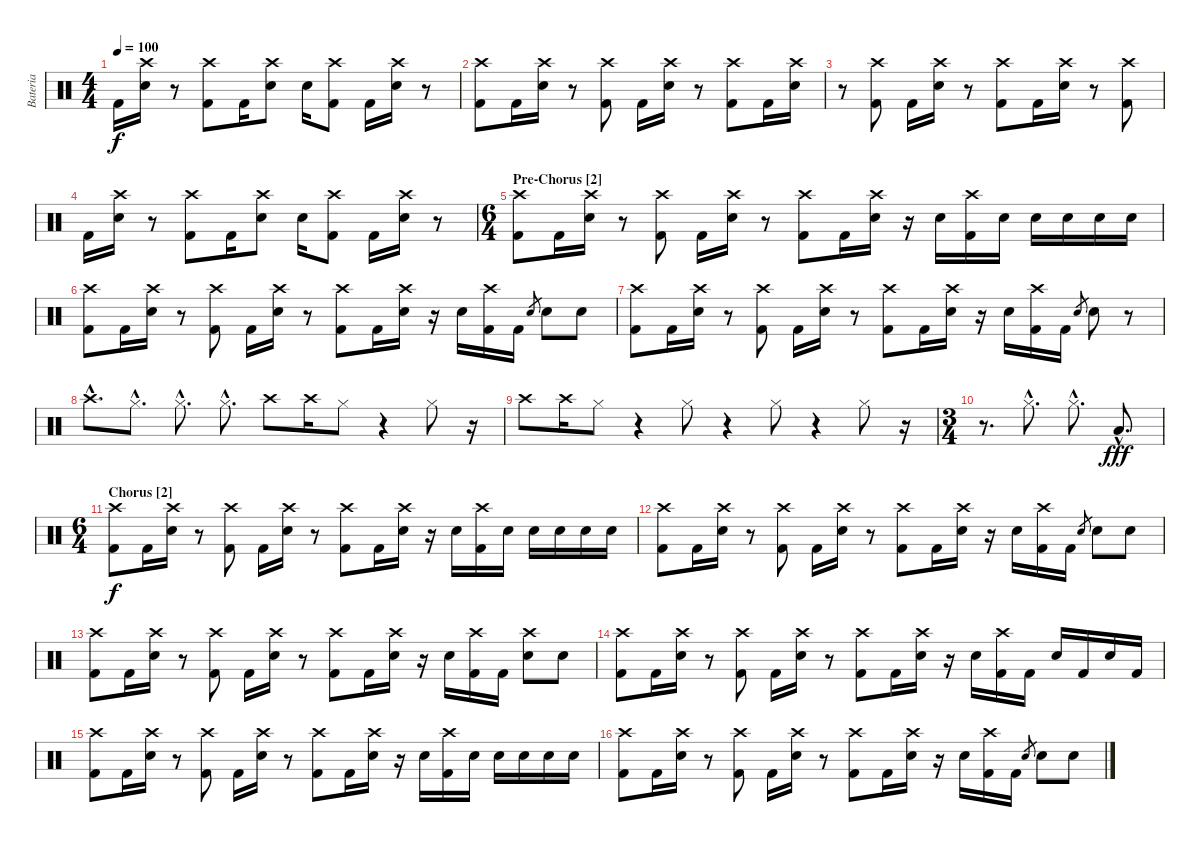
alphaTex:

\track ("Bateria" "Bateria") {instrument percussion}
\staff {score}
\articulation defaults
\ts (4 4)
\tempo 100
\clef neutral
\ks c "Kick (hit) 2".16{dy f}
("Crash high (hit)" "Electric Snare (hit)").16 r.8 ("Crash high (hit)" "Kick (hit) 2").8 "Kick (hit) 2".16 ("Crash high (hit)" "Electric Snare (hit)").8 "Electric Snare (hit)".16 ("Crash high (hit)" "Kick (hit) 2").8 "Kick (hit) 2".16 ("Crash high (hit)" "Electric Snare (hit)").16 r.8 |
("Crash high (hit)" "Kick (hit) 2").8 "Kick (hit) 2".16 ("Crash high (hit)" "Electric Snare (hit)").16 r.8 ("Crash high (hit)" "Kick (hit) 2").8 "Kick (hit) 2".16 ("Crash high (hit)" "Electric Snare (hit)").16 r.8 ("Crash high (hit)" "Kick (hit) 2").8 "Kick (hit) 2".16 ("Crash high (hit)" "Electric Snare (hit)").16 |
r.8 ("Crash high (hit)" "Kick (hit) 2").8 "Kick (hit) 2".16 ("Crash high (hit)" "Electric Snare (hit)").16 r.8 ("Crash high (hit)" "Kick (hit) 2").8 "Kick (hit) 2".16 ("Crash high (hit)" "Electric Snare (hit)").16 r.8 ("Crash high (hit)" "Kick (hit) 2").8 |
"Kick (hit) 2".16 ("Crash high (hit)" "Electric Snare (hit)").16 r.8 ("Crash high (hit)" "Kick (hit) 2").8 "Kick (hit) 2".16 ("Crash high (hit)" "Electric Snare (hit)").8 "Electric Snare (hit)".16 ("Crash high (hit)" "Kick (hit) 2").8 "Kick (hit) 2".16 ("Crash high (hit)" "Electric Snare (hit)").16 r.8 |
\ts (6 4)
\section ("" "Pre-Chorus [2]")
("Crash high (hit)" "Kick (hit) 2").8 "Kick (hit) 2".16 ("Crash high (hit)" "Electric Snare (hit)").16 r.8 ("Crash high (hit)" "Kick (hit) 2").8 "Kick (hit) 2".16 ("Crash high (hit)" "Electric Snare (hit)").16 r.8 ("Crash high (hit)" "Kick (hit) 2").8 "Kick (hit) 2".16 ("Crash high (hit)" "Electric Snare (hit)").16 r.16 "Electric Snare (hit)".16 ("Crash high (hit)" "Kick (hit) 2").16 "Electric Snare (hit)".16 "Electric Snare (hit)".16 "Electric Snare (hit)".16 "Electric Snare (hit)".16 "Electric Snare (hit)".16 |
("Crash high (hit)" "Kick (hit) 2").8 "Kick (hit) 2".16 ("Crash high (hit)" "Electric Snare (hit)").16 r.8 ("Crash high (hit)" "Kick (hit) 2").8 "Kick (hit) 2".16 ("Crash high (hit)" "Electric Snare (hit)").16 r.8 ("Crash high (hit)" "Kick (hit) 2").8 "Kick (hit) 2".16 ("Crash high (hit)" "Electric Snare (hit)").16 r.16 "Electric Snare (hit)".16 ("Crash high (hit)" "Kick (hit) 2").16 "Kick (hit) 2".16 "Electric Snare (hit)".8{gr} "Electric Snare (hit)".8 "Electric Snare (hit)".8 |
("Crash high (hit)" "Kick (hit) 2").8 "Kick (hit) 2".16 ("Crash high (hit)" "Electric Snare (hit)").16 r.8 ("Crash high (hit)" "Kick (hit) 2").8 "Kick (hit) 2".16 ("Crash high (hit)" "Electric Snare (hit)").16 r.8 ("Crash high (hit)" "Kick (hit) 2").8 "Kick (hit) 2".16 ("Crash high (hit)" "Electric Snare (hit)").16 r.16 "Electric Snare (hit)".16 ("Crash high (hit)" "Kick (hit) 2").16 "Kick (hit) 2".16 "Electric Snare (hit)".8{gr} "Electric Snare (hit)".8 r.8 |
"Crash high (hit)"{hac}.8{d} "Hi-Hat (closed)"{hac}.8{d} "Hi-Hat (closed)"{hac}.8{d} "Hi-Hat (closed)"{hac}.8{d} "Crash high (hit)".8 "Crash high (hit)".16 "Hi-Hat (closed)".8 r.4 "Hi-Hat (closed)".8 r.16 |
"Crash high (hit)".8 "Crash high (hit)".16 "Hi-Hat (closed)".8 r.4 "Hi-Hat (closed)".8 r.4 "Hi-Hat (closed)".8 r.4 "Hi-Hat (closed)".8 r.16 |
\ts (3 4)
r.8{d} "Hi-Hat (closed)"{hac}.8{d} "Hi-Hat (closed)"{hac}.8{d} "Low Tom (hit)"{hac}.8{d dy fff} |
\ts (6 4)
\section ("" "Chorus [2]")
("Crash high (hit)" "Kick (hit) 2").8{dy f} "Kick (hit) 2".16 ("Crash high (hit)" "Electric Snare (hit)").16 r.8 ("Crash high (hit)" "Kick (hit) 2").8 "Kick (hit) 2".16 ("Crash high (hit)" "Electric Snare (hit)").16 r.8 ("Crash high (hit)" "Kick (hit) 2").8 "Kick (hit) 2".16 ("Crash high (hit)" "Electric Snare (hit)").16 r.16 "Electric Snare (hit)".16 ("Crash high (hit)" "Kick (hit) 2").16 "Electric Snare (hit)".16 "Electric Snare (hit)".16 "Electric Snare (hit)".16 "Electric Snare (hit)".16 "Electric Snare (hit)".16 |
("Crash high (hit)" "Kick (hit) 2").8 "Kick (hit) 2".16 ("Crash high (hit)" "Electric Snare (hit)").16 r.8 ("Crash high (hit)" "Kick (hit) 2").8 "Kick (hit) 2".16 ("Crash high (hit)" "Electric Snare (hit)").16 r.8 ("Crash high (hit)" "Kick (hit) 2").8 "Kick (hit) 2".16 ("Crash high (hit)" "Electric Snare (hit)").16 r.16 "Electric Snare (hit)".16 ("Crash high (hit)" "Kick (hit) 2").16 "Kick (hit) 2".16 "Electric Snare (hit)".8{gr} "Electric Snare (hit)".8 "Electric Snare (hit)".8 |
("Crash high (hit)" "Kick (hit) 2").8 "Kick (hit) 2".16 ("Crash high (hit)" "Electric Snare (hit)").16 r.8 ("Crash high (hit)" "Kick (hit) 2").8 "Kick (hit) 2".16 ("Crash high (hit)" "Electric Snare (hit)").16 r.8 ("Crash high (hit)" "Kick (hit) 2").8 "Kick (hit) 2".16 ("Crash high (hit)" "Electric Snare (hit)").16 r.16 "Electric Snare (hit)".16 ("Crash high (hit)" "Kick (hit) 2").16 "Kick (hit) 2".16 ("Crash high (hit)" "Electric Snare (hit)").8 "Electric Snare (hit)".8 |
("Crash high (hit)" "Kick (hit) 2").8 "Kick (hit) 2".16 ("Crash high (hit)" "Electric Snare (hit)").16 r.8 ("Crash high (hit)" "Kick (hit) 2").8 "Kick (hit) 2".16 ("Crash high (hit)" "Electric Snare (hit)").16 r.8 ("Crash high (hit)" "Kick (hit) 2").8 "Kick (hit) 2".16 ("Crash high (hit)" "Electric Snare (hit)").16 r.16 "Electric Snare (hit)".16 ("Crash high (hit)" "Kick (hit) 2").16 "Kick (hit) 2".16 "Electric Snare (hit)".16 "Kick (hit) 2".16 "Electric Snare (hit)".16 "Kick (hit) 2".16 |
("Crash high (hit)" "Kick (hit) 2").8 "Kick (hit) 2".16 ("Crash high (hit)" "Electric Snare (hit)").16 r.8 ("Crash high (hit)" "Kick (hit) 2").8 "Kick (hit) 2".16 ("Crash high (hit)" "Electric Snare (hit)").16 r.8 ("Crash high (hit)" "Kick (hit) 2").8 "Kick (hit) 2".16 ("Crash high (hit)" "Electric Snare (hit)").16 r.16 "Electric Snare (hit)".16 ("Crash high (hit)" "Kick (hit) 2").16 "Electric Snare (hit)".16 "Electric Snare (hit)".16 "Electric Snare (hit)".16 "Electric Snare (hit)".16 "Electric Snare (hit)".16 |
("Crash high (hit)" "Kick (hit) 2").8 "Kick (hit) 2".16 ("Crash high (hit)" "Electric Snare (hit)").16 r.8 ("Crash high (hit)" "Kick (hit) 2").8 "Kick (hit) 2".16 ("Crash high (hit)" "Electric Snare (hit)").16 r.8 ("Crash high (hit)" "Kick (hit) 2").8 "Kick (hit) 2".16 ("Crash high (hit)" "Electric Snare (hit)").16 r.16 "Electric Snare (hit)".16 ("Crash high (hit)" "Kick (hit) 2").16 "Kick (hit) 2".16 "Electric Snare (hit)".8{gr} "Electric Snare (hit)".8 "Electric Snare (hit)".8
